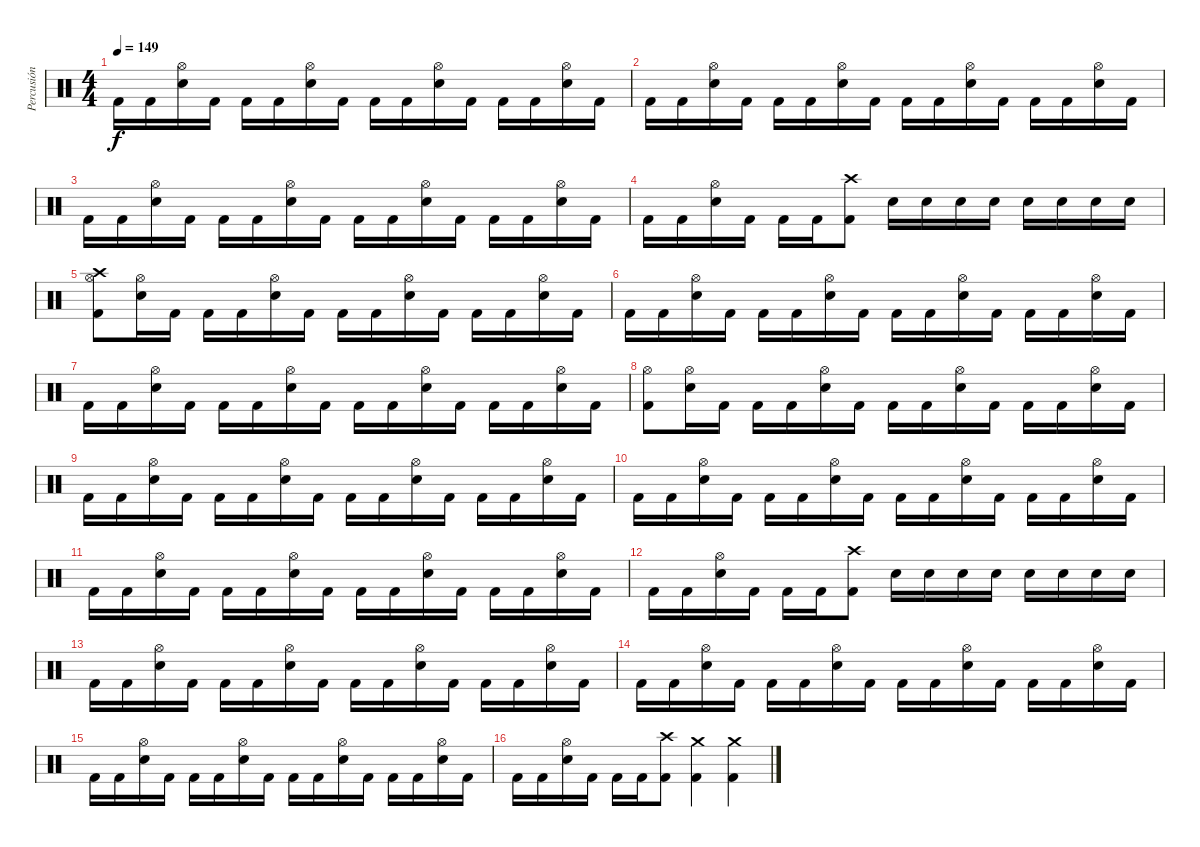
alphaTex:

\track ("Percusión" "Percusión") {instrument percussion}
\staff {score}
\articulation defaults
\ts (4 4)
\tempo 149
\clef neutral
\ks c "Kick (hit) 2".16{dy f} "Kick (hit) 2".16
("Hi-Hat (open)" "Snare (hit) 2").16 "Kick (hit) 2".16 "Kick (hit) 2".16 "Kick (hit) 2".16 ("Hi-Hat (open)" "Snare (hit) 2").16 "Kick (hit) 2".16 "Kick (hit) 2".16 "Kick (hit) 2".16 ("Hi-Hat (open)" "Snare (hit) 2").16 "Kick (hit) 2".16 "Kick (hit) 2".16 "Kick (hit) 2".16 ("Hi-Hat (open)" "Snare (hit) 2").16 "Kick (hit) 2".16 |
"Kick (hit) 2".16 "Kick (hit) 2".16 ("Hi-Hat (open)" "Snare (hit) 2").16 "Kick (hit) 2".16 "Kick (hit) 2".16 "Kick (hit) 2".16 ("Hi-Hat (open)" "Snare (hit) 2").16 "Kick (hit) 2".16 "Kick (hit) 2".16 "Kick (hit) 2".16 ("Hi-Hat (open)" "Snare (hit) 2").16 "Kick (hit) 2".16 "Kick (hit) 2".16 "Kick (hit) 2".16 ("Hi-Hat (open)" "Snare (hit) 2").16 "Kick (hit) 2".16 |
"Kick (hit) 2".16 "Kick (hit) 2".16 ("Hi-Hat (open)" "Snare (hit) 2").16 "Kick (hit) 2".16 "Kick (hit) 2".16 "Kick (hit) 2".16 ("Hi-Hat (open)" "Snare (hit) 2").16 "Kick (hit) 2".16 "Kick (hit) 2".16 "Kick (hit) 2".16 ("Hi-Hat (open)" "Snare (hit) 2").16 "Kick (hit) 2".16 "Kick (hit) 2".16 "Kick (hit) 2".16 ("Hi-Hat (open)" "Snare (hit) 2").16 "Kick (hit) 2".16 |
"Kick (hit) 2".16 "Kick (hit) 2".16 ("Hi-Hat (open)" "Snare (hit) 2").16 "Kick (hit) 2".16 "Kick (hit) 2".16 "Kick (hit) 2".16 ("Crash high (hit)" "Kick (hit) 2").8 "Snare (hit) 2".16 "Snare (hit) 2".16 "Snare (hit) 2".16 "Snare (hit) 2".16 "Snare (hit) 2".16 "Snare (hit) 2".16 "Snare (hit) 2".16 "Snare (hit) 2".16 |
("Crash high (hit)" "Hi-Hat (open)" "Kick (hit) 2").8 ("Hi-Hat (open)" "Snare (hit) 2").16 "Kick (hit) 2".16 "Kick (hit) 2".16 "Kick (hit) 2".16 ("Hi-Hat (open)" "Snare (hit) 2").16 "Kick (hit) 2".16 "Kick (hit) 2".16 "Kick (hit) 2".16 ("Hi-Hat (open)" "Snare (hit) 2").16 "Kick (hit) 2".16 "Kick (hit) 2".16 "Kick (hit) 2".16 ("Hi-Hat (open)" "Snare (hit) 2").16 "Kick (hit) 2".16 |
"Kick (hit) 2".16 "Kick (hit) 2".16 ("Hi-Hat (open)" "Snare (hit) 2").16 "Kick (hit) 2".16 "Kick (hit) 2".16 "Kick (hit) 2".16 ("Hi-Hat (open)" "Snare (hit) 2").16 "Kick (hit) 2".16 "Kick (hit) 2".16 "Kick (hit) 2".16 ("Hi-Hat (open)" "Snare (hit) 2").16 "Kick (hit) 2".16 "Kick (hit) 2".16 "Kick (hit) 2".16 ("Hi-Hat (open)" "Snare (hit) 2").16 "Kick (hit) 2".16 |
"Kick (hit) 2".16 "Kick (hit) 2".16 ("Hi-Hat (open)" "Snare (hit) 2").16 "Kick (hit) 2".16 "Kick (hit) 2".16 "Kick (hit) 2".16 ("Hi-Hat (open)" "Snare (hit) 2").16 "Kick (hit) 2".16 "Kick (hit) 2".16 "Kick (hit) 2".16 ("Hi-Hat (open)" "Snare (hit) 2").16 "Kick (hit) 2".16 "Kick (hit) 2".16 "Kick (hit) 2".16 ("Hi-Hat (open)" "Snare (hit) 2").16 "Kick (hit) 2".16 |
("Hi-Hat (open)" "Kick (hit) 2").8 ("Hi-Hat (open)" "Snare (hit) 2").16 "Kick (hit) 2".16 "Kick (hit) 2".16 "Kick (hit) 2".16 ("Hi-Hat (open)" "Snare (hit) 2").16 "Kick (hit) 2".16 "Kick (hit) 2".16 "Kick (hit) 2".16 ("Hi-Hat (open)" "Snare (hit) 2").16 "Kick (hit) 2".16 "Kick (hit) 2".16 "Kick (hit) 2".16 ("Hi-Hat (open)" "Snare (hit) 2").16 "Kick (hit) 2".16 |
"Kick (hit) 2".16 "Kick (hit) 2".16 ("Hi-Hat (open)" "Snare (hit) 2").16 "Kick (hit) 2".16 "Kick (hit) 2".16 "Kick (hit) 2".16 ("Hi-Hat (open)" "Snare (hit) 2").16 "Kick (hit) 2".16 "Kick (hit) 2".16 "Kick (hit) 2".16 ("Hi-Hat (open)" "Snare (hit) 2").16 "Kick (hit) 2".16 "Kick (hit) 2".16 "Kick (hit) 2".16 ("Hi-Hat (open)" "Snare (hit) 2").16 "Kick (hit) 2".16 |
"Kick (hit) 2".16 "Kick (hit) 2".16 ("Hi-Hat (open)" "Snare (hit) 2").16 "Kick (hit) 2".16 "Kick (hit) 2".16 "Kick (hit) 2".16 ("Hi-Hat (open)" "Snare (hit) 2").16 "Kick (hit) 2".16 "Kick (hit) 2".16 "Kick (hit) 2".16 ("Hi-Hat (open)" "Snare (hit) 2").16 "Kick (hit) 2".16 "Kick (hit) 2".16 "Kick (hit) 2".16 ("Hi-Hat (open)" "Snare (hit) 2").16 "Kick (hit) 2".16 |
"Kick (hit) 2".16 "Kick (hit) 2".16 ("Hi-Hat (open)" "Snare (hit) 2").16 "Kick (hit) 2".16 "Kick (hit) 2".16 "Kick (hit) 2".16 ("Hi-Hat (open)" "Snare (hit) 2").16 "Kick (hit) 2".16 "Kick (hit) 2".16 "Kick (hit) 2".16 ("Hi-Hat (open)" "Snare (hit) 2").16 "Kick (hit) 2".16 "Kick (hit) 2".16 "Kick (hit) 2".16 ("Hi-Hat (open)" "Snare (hit) 2").16 "Kick (hit) 2".16 |
"Kick (hit) 2".16 "Kick (hit) 2".16 ("Hi-Hat (open)" "Snare (hit) 2").16 "Kick (hit) 2".16 "Kick (hit) 2".16 "Kick (hit) 2".16 ("Crash high (hit)" "Kick (hit) 2").8 "Snare (hit) 2".16 "Snare (hit) 2".16 "Snare (hit) 2".16 "Snare (hit) 2".16 "Snare (hit) 2".16 "Snare (hit) 2".16 "Snare (hit) 2".16 "Snare (hit) 2".16 |
"Kick (hit) 2".16 "Kick (hit) 2".16 ("Hi-Hat (open)" "Snare (hit) 2").16 "Kick (hit) 2".16 "Kick (hit) 2".16 "Kick (hit) 2".16 ("Hi-Hat (open)" "Snare (hit) 2").16 "Kick (hit) 2".16 "Kick (hit) 2".16 "Kick (hit) 2".16 ("Hi-Hat (open)" "Snare (hit) 2").16 "Kick (hit) 2".16 "Kick (hit) 2".16 "Kick (hit) 2".16 ("Hi-Hat (open)" "Snare (hit) 2").16 "Kick (hit) 2".16 |
"Kick (hit) 2".16 "Kick (hit) 2".16 ("Hi-Hat (open)" "Snare (hit) 2").16 "Kick (hit) 2".16 "Kick (hit) 2".16 "Kick (hit) 2".16 ("Hi-Hat (open)" "Snare (hit) 2").16 "Kick (hit) 2".16 "Kick (hit) 2".16 "Kick (hit) 2".16 ("Hi-Hat (open)" "Snare (hit) 2").16 "Kick (hit) 2".16 "Kick (hit) 2".16 "Kick (hit) 2".16 ("Hi-Hat (open)" "Snare (hit) 2").16 "Kick (hit) 2".16 |
"Kick (hit) 2".16 "Kick (hit) 2".16 ("Hi-Hat (open)" "Snare (hit) 2").16 "Kick (hit) 2".16 "Kick (hit) 2".16 "Kick (hit) 2".16 ("Hi-Hat (open)" "Snare (hit) 2").16 "Kick (hit) 2".16 "Kick (hit) 2".16 "Kick (hit) 2".16 ("Hi-Hat (open)" "Snare (hit) 2").16 "Kick (hit) 2".16 "Kick (hit) 2".16 "Kick (hit) 2".16 ("Hi-Hat (open)" "Snare (hit) 2").16 "Kick (hit) 2".16 |
"Kick (hit) 2".16 "Kick (hit) 2".16 ("Hi-Hat (open)" "Snare (hit) 2").16 "Kick (hit) 2".16 "Kick (hit) 2".16 "Kick (hit) 2".16 ("Crash high (hit)" "Kick (hit) 2").8 ("Crash medium (hit)" "Kick (hit) 2").4 ("Crash medium (hit)" "Kick (hit) 2").4
